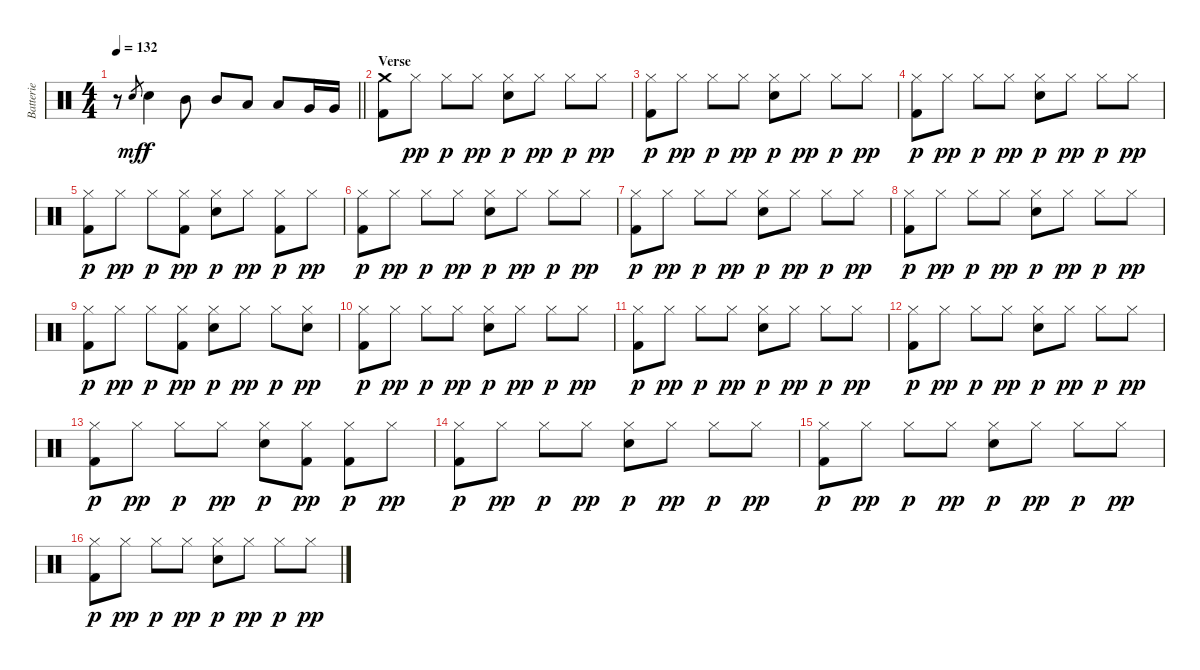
\track ("Batterie" "Batterie") {instrument percussion}
\staff {score}
\articulation defaults
\ts (4 4)
\tempo 132
\clef neutral
\barLineRight lightlight
\ks c
r.8{dy f} "Electric Snare (hit)".8{gr dy mf} "Electric Snare (hit)".4{dy f} "Mid Tom (hit)".8 "Mid Tom (hit)".8 "Low Tom (hit)".8 "Low Tom (hit)".8 "Very Low Tom (hit)".16 "Very Low Tom (hit)".16 |
\section ("" "Verse")
("Crash medium (hit)" "Kick (hit) 2").8 "Hi-Hat (closed)".8{dy pp} "Hi-Hat (closed)".8{dy p} "Hi-Hat (closed)".8{dy pp} ("Hi-Hat (closed)" "Electric Snare (hit)").8{dy p} "Hi-Hat (closed)".8{dy pp} "Hi-Hat (closed)".8{dy p} "Hi-Hat (closed)".8{dy pp} |
("Hi-Hat (closed)" "Kick (hit) 2").8{dy p} "Hi-Hat (closed)".8{dy pp} "Hi-Hat (closed)".8{dy p} "Hi-Hat (closed)".8{dy pp} ("Hi-Hat (closed)" "Electric Snare (hit)").8{dy p} "Hi-Hat (closed)".8{dy pp} "Hi-Hat (closed)".8{dy p} "Hi-Hat (closed)".8{dy pp} |
("Hi-Hat (closed)" "Kick (hit) 2").8{dy p} "Hi-Hat (closed)".8{dy pp} "Hi-Hat (closed)".8{dy p} "Hi-Hat (closed)".8{dy pp} ("Hi-Hat (closed)" "Electric Snare (hit)").8{dy p} "Hi-Hat (closed)".8{dy pp} "Hi-Hat (closed)".8{dy p} "Hi-Hat (closed)".8{dy pp} |
("Hi-Hat (closed)" "Kick (hit) 2").8{dy p} "Hi-Hat (closed)".8{dy pp} "Hi-Hat (closed)".8{dy p} ("Hi-Hat (closed)" "Kick (hit) 2").8{dy pp} ("Hi-Hat (closed)" "Electric Snare (hit)").8{dy p} "Hi-Hat (closed)".8{dy pp} ("Hi-Hat (closed)" "Kick (hit) 2").8{dy p} "Hi-Hat (closed)".8{dy pp} |
("Hi-Hat (closed)" "Kick (hit) 2").8{dy p} "Hi-Hat (closed)".8{dy pp} "Hi-Hat (closed)".8{dy p} "Hi-Hat (closed)".8{dy pp} ("Hi-Hat (closed)" "Electric Snare (hit)").8{dy p} "Hi-Hat (closed)".8{dy pp} "Hi-Hat (closed)".8{dy p} "Hi-Hat (closed)".8{dy pp} |
("Hi-Hat (closed)" "Kick (hit) 2").8{dy p} "Hi-Hat (closed)".8{dy pp} "Hi-Hat (closed)".8{dy p} "Hi-Hat (closed)".8{dy pp} ("Hi-Hat (closed)" "Electric Snare (hit)").8{dy p} "Hi-Hat (closed)".8{dy pp} "Hi-Hat (closed)".8{dy p} "Hi-Hat (closed)".8{dy pp} |
("Hi-Hat (closed)" "Kick (hit) 2").8{dy p} "Hi-Hat (closed)".8{dy pp} "Hi-Hat (closed)".8{dy p} "Hi-Hat (closed)".8{dy pp} ("Hi-Hat (closed)" "Electric Snare (hit)").8{dy p} "Hi-Hat (closed)".8{dy pp} "Hi-Hat (closed)".8{dy p} "Hi-Hat (closed)".8{dy pp} |
("Hi-Hat (closed)" "Kick (hit) 2").8{dy p} "Hi-Hat (closed)".8{dy pp} "Hi-Hat (closed)".8{dy p} ("Hi-Hat (closed)" "Kick (hit) 2").8{dy pp} ("Hi-Hat (closed)" "Electric Snare (hit)").8{dy p} "Hi-Hat (closed)".8{dy pp} "Hi-Hat (closed)".8{dy p} ("Hi-Hat (closed)" "Electric Snare (hit)").8{dy pp} |
("Hi-Hat (closed)" "Kick (hit) 2").8{dy p} "Hi-Hat (closed)".8{dy pp} "Hi-Hat (closed)".8{dy p} "Hi-Hat (closed)".8{dy pp} ("Hi-Hat (closed)" "Electric Snare (hit)").8{dy p} "Hi-Hat (closed)".8{dy pp} "Hi-Hat (closed)".8{dy p} "Hi-Hat (closed)".8{dy pp} |
("Hi-Hat (closed)" "Kick (hit) 2").8{dy p} "Hi-Hat (closed)".8{dy pp} "Hi-Hat (closed)".8{dy p} "Hi-Hat (closed)".8{dy pp} ("Hi-Hat (closed)" "Electric Snare (hit)").8{dy p} "Hi-Hat (closed)".8{dy pp} "Hi-Hat (closed)".8{dy p} "Hi-Hat (closed)".8{dy pp} |
("Hi-Hat (closed)" "Kick (hit) 2").8{dy p} "Hi-Hat (closed)".8{dy pp} "Hi-Hat (closed)".8{dy p} "Hi-Hat (closed)".8{dy pp} ("Hi-Hat (closed)" "Electric Snare (hit)").8{dy p} "Hi-Hat (closed)".8{dy pp} "Hi-Hat (closed)".8{dy p} "Hi-Hat (closed)".8{dy pp} |
("Hi-Hat (closed)" "Kick (hit) 2").8{dy p} "Hi-Hat (closed)".8{dy pp} "Hi-Hat (closed)".8{dy p} "Hi-Hat (closed)".8{dy pp} ("Hi-Hat (closed)" "Electric Snare (hit)").8{dy p} ("Hi-Hat (closed)" "Kick (hit) 2").8{dy pp} ("Hi-Hat (closed)" "Kick (hit) 2").8{dy p} "Hi-Hat (closed)".8{dy pp} |
("Hi-Hat (closed)" "Kick (hit) 2").8{dy p} "Hi-Hat (closed)".8{dy pp} "Hi-Hat (closed)".8{dy p} "Hi-Hat (closed)".8{dy pp} ("Hi-Hat (closed)" "Electric Snare (hit)").8{dy p} "Hi-Hat (closed)".8{dy pp} "Hi-Hat (closed)".8{dy p} "Hi-Hat (closed)".8{dy pp} |
("Hi-Hat (closed)" "Kick (hit) 2").8{dy p} "Hi-Hat (closed)".8{dy pp} "Hi-Hat (closed)".8{dy p} "Hi-Hat (closed)".8{dy pp} ("Hi-Hat (closed)" "Electric Snare (hit)").8{dy p} "Hi-Hat (closed)".8{dy pp} "Hi-Hat (closed)".8{dy p} "Hi-Hat (closed)".8{dy pp} |
("Hi-Hat (closed)" "Kick (hit) 2").8{dy p} "Hi-Hat (closed)".8{dy pp} "Hi-Hat (closed)".8{dy p} "Hi-Hat (closed)".8{dy pp} ("Hi-Hat (closed)" "Electric Snare (hit)").8{dy p} "Hi-Hat (closed)".8{dy pp} "Hi-Hat (closed)".8{dy p} "Hi-Hat (closed)".8{dy pp}
